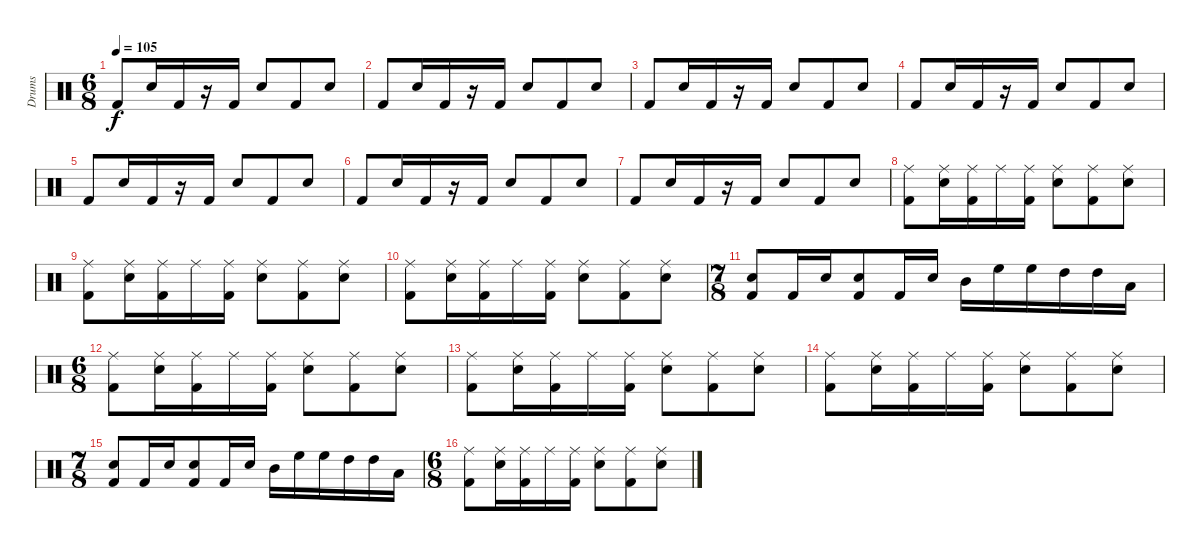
\track ("Drums" "Drums") {instrument percussion}
\staff {score}
\articulation defaults
\ts (6 8)
\tempo 105
\clef neutral
\ks c "Kick (hit) 2".8{dy f} "Snare (hit) 2".16 "Kick (hit) 2".16
r.16 "Kick (hit) 2".16 "Snare (hit) 2".8 "Kick (hit) 2".8 "Snare (hit) 2".8 |
"Kick (hit) 2".8 "Snare (hit) 2".16 "Kick (hit) 2".16 r.16 "Kick (hit) 2".16 "Snare (hit) 2".8 "Kick (hit) 2".8 "Snare (hit) 2".8 |
"Kick (hit) 2".8 "Snare (hit) 2".16 "Kick (hit) 2".16 r.16 "Kick (hit) 2".16 "Snare (hit) 2".8 "Kick (hit) 2".8 "Snare (hit) 2".8 |
"Kick (hit) 2".8 "Snare (hit) 2".16 "Kick (hit) 2".16 r.16 "Kick (hit) 2".16 "Snare (hit) 2".8 "Kick (hit) 2".8 "Snare (hit) 2".8 |
"Kick (hit) 2".8 "Snare (hit) 2".16 "Kick (hit) 2".16 r.16 "Kick (hit) 2".16 "Snare (hit) 2".8 "Kick (hit) 2".8 "Snare (hit) 2".8 |
"Kick (hit) 2".8 "Snare (hit) 2".16 "Kick (hit) 2".16 r.16 "Kick (hit) 2".16 "Snare (hit) 2".8 "Kick (hit) 2".8 "Snare (hit) 2".8 |
"Kick (hit) 2".8 "Snare (hit) 2".16 "Kick (hit) 2".16 r.16 "Kick (hit) 2".16 "Snare (hit) 2".8 "Kick (hit) 2".8 "Snare (hit) 2".8 |
("Ride (middle)" "Kick (hit) 2").8 ("Ride (middle)" "Snare (hit) 2").16 ("Ride (middle)" "Kick (hit) 2").16 "Ride (middle)".16 ("Ride (middle)" "Kick (hit) 2").16 ("Ride (middle)" "Snare (hit) 2").8 ("Ride (middle)" "Kick (hit) 2").8 ("Ride (middle)" "Snare (hit) 2").8 |
("Ride (middle)" "Kick (hit) 2").8 ("Ride (middle)" "Snare (hit) 2").16 ("Ride (middle)" "Kick (hit) 2").16 "Ride (middle)".16 ("Ride (middle)" "Kick (hit) 2").16 ("Ride (middle)" "Snare (hit) 2").8 ("Ride (middle)" "Kick (hit) 2").8 ("Ride (middle)" "Snare (hit) 2").8 |
("Ride (middle)" "Kick (hit) 2").8 ("Ride (middle)" "Snare (hit) 2").16 ("Ride (middle)" "Kick (hit) 2").16 "Ride (middle)".16 ("Ride (middle)" "Kick (hit) 2").16 ("Ride (middle)" "Snare (hit) 2").8 ("Ride (middle)" "Kick (hit) 2").8 ("Ride (middle)" "Snare (hit) 2").8 |
\ts (7 8)
("Snare (hit) 2" "Kick (hit) 2").8 "Kick (hit) 2".16 "Snare (hit) 2".16 ("Kick (hit) 2" "Snare (hit) 2").8 "Kick (hit) 2".16 "Snare (hit) 2".16 "Mid Tom (hit)".16 "High Floor Tom (hit)".16 "High Floor Tom (hit)".16 "High Tom (hit)".16 "High Tom (hit)".16 "Low Tom (hit)".16 |
\ts (6 8)
("Ride (middle)" "Kick (hit) 2").8 ("Ride (middle)" "Snare (hit) 2").16 ("Ride (middle)" "Kick (hit) 2").16 "Ride (middle)".16 ("Ride (middle)" "Kick (hit) 2").16 ("Ride (middle)" "Snare (hit) 2").8 ("Ride (middle)" "Kick (hit) 2").8 ("Ride (middle)" "Snare (hit) 2").8 |
("Ride (middle)" "Kick (hit) 2").8 ("Ride (middle)" "Snare (hit) 2").16 ("Ride (middle)" "Kick (hit) 2").16 "Ride (middle)".16 ("Ride (middle)" "Kick (hit) 2").16 ("Ride (middle)" "Snare (hit) 2").8 ("Ride (middle)" "Kick (hit) 2").8 ("Ride (middle)" "Snare (hit) 2").8 |
("Ride (middle)" "Kick (hit) 2").8 ("Ride (middle)" "Snare (hit) 2").16 ("Ride (middle)" "Kick (hit) 2").16 "Ride (middle)".16 ("Ride (middle)" "Kick (hit) 2").16 ("Ride (middle)" "Snare (hit) 2").8 ("Ride (middle)" "Kick (hit) 2").8 ("Ride (middle)" "Snare (hit) 2").8 |
\ts (7 8)
("Snare (hit) 2" "Kick (hit) 2").8 "Kick (hit) 2".16 "Snare (hit) 2".16 ("Kick (hit) 2" "Snare (hit) 2").8 "Kick (hit) 2".16 "Snare (hit) 2".16 "Mid Tom (hit)".16 "High Floor Tom (hit)".16 "High Floor Tom (hit)".16 "High Tom (hit)".16 "High Tom (hit)".16 "Low Tom (hit)".16 |
\ts (6 8)
("Ride (middle)" "Kick (hit) 2").8 ("Ride (middle)" "Snare (hit) 2").16 ("Ride (middle)" "Kick (hit) 2").16 "Ride (middle)".16 ("Ride (middle)" "Kick (hit) 2").16 ("Ride (middle)" "Snare (hit) 2").8 ("Ride (middle)" "Kick (hit) 2").8 ("Ride (middle)" "Snare (hit) 2").8
